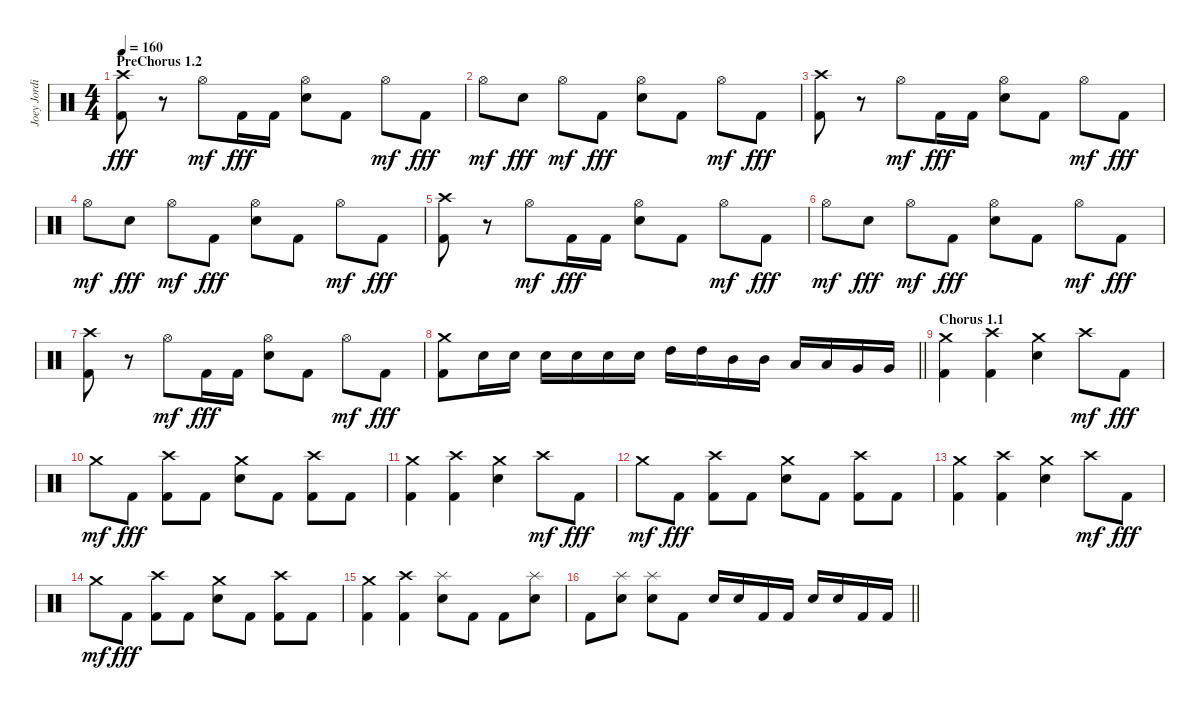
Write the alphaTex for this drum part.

\track ("Joey Jordison" "Joey Jordi") {instrument percussion}
\staff {score}
\articulation defaults
\ts (4 4)
\section ("" "PreChorus 1.2")
\tempo 160
\clef neutral
\ks c
("Crash high (hit)" "Kick (hit) 2").8{dy fff} r.8 "Hi-Hat (open)".8{dy mf} "Kick (hit) 2".16{dy fff} "Kick (hit) 2".16 ("Hi-Hat (open)" "Electric Snare (hit)").8 "Kick (hit) 2".8 "Hi-Hat (open)".8{dy mf} "Kick (hit) 2".8{dy fff} |
"Hi-Hat (open)".8{dy mf} "Electric Snare (hit)".8{dy fff} "Hi-Hat (open)".8{dy mf} "Kick (hit) 2".8{dy fff} ("Hi-Hat (open)" "Electric Snare (hit)").8 "Kick (hit) 2".8 "Hi-Hat (open)".8{dy mf} "Kick (hit) 2".8{dy fff} |
("Crash high (hit)" "Kick (hit) 2").8 r.8 "Hi-Hat (open)".8{dy mf} "Kick (hit) 2".16{dy fff} "Kick (hit) 2".16 ("Hi-Hat (open)" "Electric Snare (hit)").8 "Kick (hit) 2".8 "Hi-Hat (open)".8{dy mf} "Kick (hit) 2".8{dy fff} |
"Hi-Hat (open)".8{dy mf} "Electric Snare (hit)".8{dy fff} "Hi-Hat (open)".8{dy mf} "Kick (hit) 2".8{dy fff} ("Hi-Hat (open)" "Electric Snare (hit)").8 "Kick (hit) 2".8 "Hi-Hat (open)".8{dy mf} "Kick (hit) 2".8{dy fff} |
("Crash high (hit)" "Kick (hit) 2").8 r.8 "Hi-Hat (open)".8{dy mf} "Kick (hit) 2".16{dy fff} "Kick (hit) 2".16 ("Hi-Hat (open)" "Electric Snare (hit)").8 "Kick (hit) 2".8 "Hi-Hat (open)".8{dy mf} "Kick (hit) 2".8{dy fff} |
"Hi-Hat (open)".8{dy mf} "Electric Snare (hit)".8{dy fff} "Hi-Hat (open)".8{dy mf} "Kick (hit) 2".8{dy fff} ("Hi-Hat (open)" "Electric Snare (hit)").8 "Kick (hit) 2".8 "Hi-Hat (open)".8{dy mf} "Kick (hit) 2".8{dy fff} |
("Crash high (hit)" "Kick (hit) 2").8 r.8 "Hi-Hat (open)".8{dy mf} "Kick (hit) 2".16{dy fff} "Kick (hit) 2".16 ("Hi-Hat (open)" "Electric Snare (hit)").8 "Kick (hit) 2".8 "Hi-Hat (open)".8{dy mf} "Kick (hit) 2".8{dy fff} |
\barLineRight lightlight
("Crash medium (hit)" "Kick (hit) 2").8 "Electric Snare (hit)".16 "Electric Snare (hit)".16 "Electric Snare (hit)".16 "Electric Snare (hit)".16 "Electric Snare (hit)".16 "Electric Snare (hit)".16 "High Tom (hit)".16 "High Tom (hit)".16 "Mid Tom (hit)".16 "Mid Tom (hit)".16 "Low Tom (hit)".16 "Low Tom (hit)".16 "Very Low Tom (hit)".16 "Very Low Tom (hit)".16 |
\section ("" "Chorus 1.1")
("Crash medium (hit)" "Kick (hit) 2").4 ("Crash high (hit)" "Kick (hit) 2").4 ("Crash medium (hit)" "Electric Snare (hit)").4 "Crash high (hit)".8{dy mf} "Kick (hit) 2".8{dy fff} |
"Crash medium (hit)".8{dy mf} "Kick (hit) 2".8{dy fff} ("Crash high (hit)" "Kick (hit) 2").8 "Kick (hit) 2".8 ("Crash medium (hit)" "Electric Snare (hit)").8 "Kick (hit) 2".8 ("Crash high (hit)" "Kick (hit) 2").8 "Kick (hit) 2".8 |
("Crash medium (hit)" "Kick (hit) 2").4 ("Crash high (hit)" "Kick (hit) 2").4 ("Crash medium (hit)" "Electric Snare (hit)").4 "Crash high (hit)".8{dy mf} "Kick (hit) 2".8{dy fff} |
"Crash medium (hit)".8{dy mf} "Kick (hit) 2".8{dy fff} ("Crash high (hit)" "Kick (hit) 2").8 "Kick (hit) 2".8 ("Crash medium (hit)" "Electric Snare (hit)").8 "Kick (hit) 2".8 ("Crash high (hit)" "Kick (hit) 2").8 "Kick (hit) 2".8 |
("Crash medium (hit)" "Kick (hit) 2").4 ("Crash high (hit)" "Kick (hit) 2").4 ("Crash medium (hit)" "Electric Snare (hit)").4 "Crash high (hit)".8{dy mf} "Kick (hit) 2".8{dy fff} |
"Crash medium (hit)".8{dy mf} "Kick (hit) 2".8{dy fff} ("Crash high (hit)" "Kick (hit) 2").8 "Kick (hit) 2".8 ("Crash medium (hit)" "Electric Snare (hit)").8 "Kick (hit) 2".8 ("Crash high (hit)" "Kick (hit) 2").8 "Kick (hit) 2".8 |
("Crash medium (hit)" "Kick (hit) 2").4 ("Crash high (hit)" "Kick (hit) 2").4 ("Splash (hit)" "Electric Snare (hit)").8 "Kick (hit) 2".8 "Kick (hit) 2".8 ("Splash (hit)" "Electric Snare (hit)").8 |
\barLineRight lightlight "Kick (hit) 2".8
("Splash (hit)" "Electric Snare (hit)").8 ("Splash (hit)" "Electric Snare (hit)").8 "Kick (hit) 2".8 "Electric Snare (hit)".16 "Electric Snare (hit)".16 "Kick (hit) 2".16 "Kick (hit) 2".16 "Electric Snare (hit)".16 "Electric Snare (hit)".16 "Kick (hit) 2".16 "Kick (hit) 2".16
